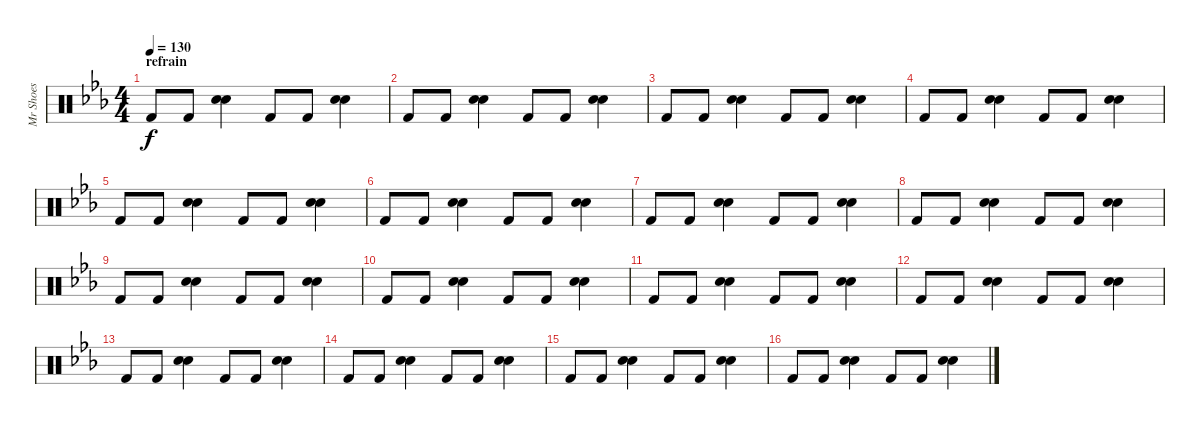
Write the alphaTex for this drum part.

\track ("Mr Shoes " "Mr Shoes ") {instrument percussion}
\staff {score}
\articulation defaults
\ts (4 4)
\section ("" "refrain")
\tempo 130
\clef neutral
\ks eb "Kick (hit) 2".8{dy f} "Kick (hit) 2".8
("Electric Snare (hit)" "Snare (hit) 2").4 "Kick (hit) 2".8 "Kick (hit) 2".8 ("Electric Snare (hit)" "Snare (hit) 2").4 |
"Kick (hit) 2".8 "Kick (hit) 2".8 ("Electric Snare (hit)" "Snare (hit) 2").4 "Kick (hit) 2".8 "Kick (hit) 2".8 ("Electric Snare (hit)" "Snare (hit) 2").4 |
"Kick (hit) 2".8 "Kick (hit) 2".8 ("Electric Snare (hit)" "Snare (hit) 2").4 "Kick (hit) 2".8 "Kick (hit) 2".8 ("Electric Snare (hit)" "Snare (hit) 2").4 |
"Kick (hit) 2".8 "Kick (hit) 2".8 ("Electric Snare (hit)" "Snare (hit) 2").4 "Kick (hit) 2".8 "Kick (hit) 2".8 ("Electric Snare (hit)" "Snare (hit) 2").4 |
"Kick (hit) 2".8 "Kick (hit) 2".8 ("Electric Snare (hit)" "Snare (hit) 2").4 "Kick (hit) 2".8 "Kick (hit) 2".8 ("Electric Snare (hit)" "Snare (hit) 2").4 |
"Kick (hit) 2".8 "Kick (hit) 2".8 ("Electric Snare (hit)" "Snare (hit) 2").4 "Kick (hit) 2".8 "Kick (hit) 2".8 ("Electric Snare (hit)" "Snare (hit) 2").4 |
"Kick (hit) 2".8 "Kick (hit) 2".8 ("Electric Snare (hit)" "Snare (hit) 2").4 "Kick (hit) 2".8 "Kick (hit) 2".8 ("Electric Snare (hit)" "Snare (hit) 2").4 |
"Kick (hit) 2".8 "Kick (hit) 2".8 ("Electric Snare (hit)" "Snare (hit) 2").4 "Kick (hit) 2".8 "Kick (hit) 2".8 ("Electric Snare (hit)" "Snare (hit) 2").4 |
"Kick (hit) 2".8 "Kick (hit) 2".8 ("Electric Snare (hit)" "Snare (hit) 2").4 "Kick (hit) 2".8 "Kick (hit) 2".8 ("Electric Snare (hit)" "Snare (hit) 2").4 |
"Kick (hit) 2".8 "Kick (hit) 2".8 ("Electric Snare (hit)" "Snare (hit) 2").4 "Kick (hit) 2".8 "Kick (hit) 2".8 ("Electric Snare (hit)" "Snare (hit) 2").4 |
"Kick (hit) 2".8 "Kick (hit) 2".8 ("Electric Snare (hit)" "Snare (hit) 2").4 "Kick (hit) 2".8 "Kick (hit) 2".8 ("Electric Snare (hit)" "Snare (hit) 2").4 |
"Kick (hit) 2".8 "Kick (hit) 2".8 ("Electric Snare (hit)" "Snare (hit) 2").4 "Kick (hit) 2".8 "Kick (hit) 2".8 ("Electric Snare (hit)" "Snare (hit) 2").4 |
"Kick (hit) 2".8 "Kick (hit) 2".8 ("Electric Snare (hit)" "Snare (hit) 2").4 "Kick (hit) 2".8 "Kick (hit) 2".8 ("Electric Snare (hit)" "Snare (hit) 2").4 |
"Kick (hit) 2".8 "Kick (hit) 2".8 ("Electric Snare (hit)" "Snare (hit) 2").4 "Kick (hit) 2".8 "Kick (hit) 2".8 ("Electric Snare (hit)" "Snare (hit) 2").4 |
"Kick (hit) 2".8 "Kick (hit) 2".8 ("Electric Snare (hit)" "Snare (hit) 2").4 "Kick (hit) 2".8 "Kick (hit) 2".8 ("Electric Snare (hit)" "Snare (hit) 2").4 |
"Kick (hit) 2".8 "Kick (hit) 2".8 ("Electric Snare (hit)" "Snare (hit) 2").4 "Kick (hit) 2".8 "Kick (hit) 2".8 ("Electric Snare (hit)" "Snare (hit) 2").4
